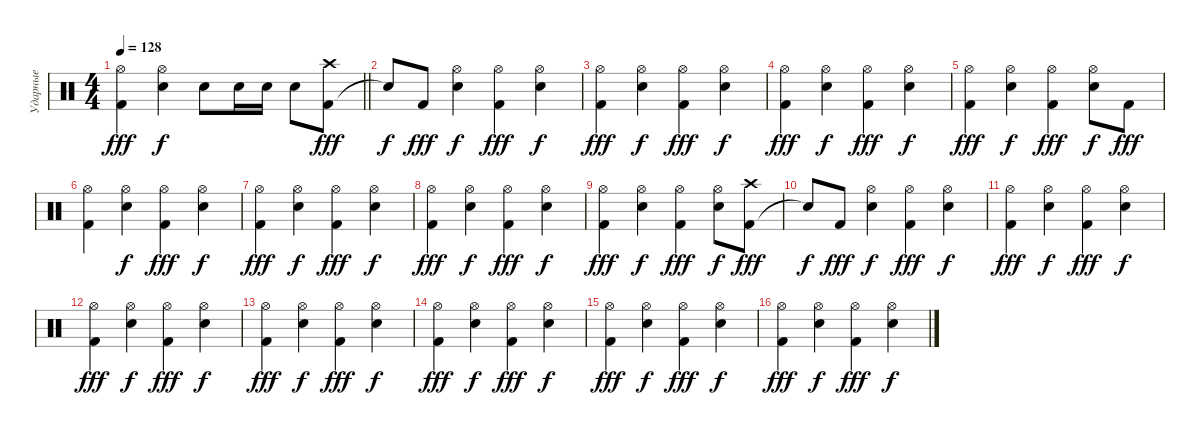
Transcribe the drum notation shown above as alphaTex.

\track ("Ударные" "Ударные") {instrument percussion}
\staff {score}
\articulation defaults
\ts (4 4)
\tempo 128
\clef neutral
\barLineRight lightlight
\ks c
("Kick (hit) 2" "Hi-Hat (open)").4{dy fff} ("Snare (hit) 2" "Hi-Hat (open)").4{dy f} "Snare (hit) 2".8 "Snare (hit) 2".16 "Snare (hit) 2".16 "Snare (hit) 2".8 ("Kick (hit) 2" "Crash high (hit)").8{dy fff} |
"Snare (hit)"{t}.8{dy f} "Kick (hit) 2".8{dy fff} ("Snare (hit) 2" "Hi-Hat (open)").4{dy f} ("Kick (hit) 2" "Hi-Hat (open)").4{dy fff} ("Snare (hit) 2" "Hi-Hat (open)").4{dy f} |
("Kick (hit) 2" "Hi-Hat (open)").4{dy fff} ("Snare (hit) 2" "Hi-Hat (open)").4{dy f} ("Kick (hit) 2" "Hi-Hat (open)").4{dy fff} ("Snare (hit) 2" "Hi-Hat (open)").4{dy f} |
("Kick (hit) 2" "Hi-Hat (open)").4{dy fff} ("Snare (hit) 2" "Hi-Hat (open)").4{dy f} ("Kick (hit) 2" "Hi-Hat (open)").4{dy fff} ("Snare (hit) 2" "Hi-Hat (open)").4{dy f} |
("Kick (hit) 2" "Hi-Hat (open)").4{dy fff} ("Snare (hit) 2" "Hi-Hat (open)").4{dy f} ("Kick (hit) 2" "Hi-Hat (open)").4{dy fff} ("Snare (hit) 2" "Hi-Hat (open)").8{dy f} "Kick (hit) 2".8{dy fff} |
("Kick (hit) 2" "Hi-Hat (open)").4 ("Snare (hit) 2" "Hi-Hat (open)").4{dy f} ("Kick (hit) 2" "Hi-Hat (open)").4{dy fff} ("Snare (hit) 2" "Hi-Hat (open)").4{dy f} |
("Kick (hit) 2" "Hi-Hat (open)").4{dy fff} ("Snare (hit) 2" "Hi-Hat (open)").4{dy f} ("Kick (hit) 2" "Hi-Hat (open)").4{dy fff} ("Snare (hit) 2" "Hi-Hat (open)").4{dy f} |
("Kick (hit) 2" "Hi-Hat (open)").4{dy fff} ("Snare (hit) 2" "Hi-Hat (open)").4{dy f} ("Kick (hit) 2" "Hi-Hat (open)").4{dy fff} ("Snare (hit) 2" "Hi-Hat (open)").4{dy f} |
("Kick (hit) 2" "Hi-Hat (open)").4{dy fff} ("Snare (hit) 2" "Hi-Hat (open)").4{dy f} ("Kick (hit) 2" "Hi-Hat (open)").4{dy fff} ("Snare (hit) 2" "Hi-Hat (open)").8{dy f} ("Kick (hit) 2" "Crash high (hit)").8{dy fff} |
"Snare (hit)"{t}.8{dy f} "Kick (hit) 2".8{dy fff} ("Snare (hit) 2" "Hi-Hat (open)").4{dy f} ("Kick (hit) 2" "Hi-Hat (open)").4{dy fff} ("Snare (hit) 2" "Hi-Hat (open)").4{dy f} |
("Kick (hit) 2" "Hi-Hat (open)").4{dy fff} ("Snare (hit) 2" "Hi-Hat (open)").4{dy f} ("Kick (hit) 2" "Hi-Hat (open)").4{dy fff} ("Snare (hit) 2" "Hi-Hat (open)").4{dy f} |
("Kick (hit) 2" "Hi-Hat (open)").4{dy fff} ("Snare (hit) 2" "Hi-Hat (open)").4{dy f} ("Kick (hit) 2" "Hi-Hat (open)").4{dy fff} ("Snare (hit) 2" "Hi-Hat (open)").4{dy f} |
("Kick (hit) 2" "Hi-Hat (open)").4{dy fff} ("Snare (hit) 2" "Hi-Hat (open)").4{dy f} ("Kick (hit) 2" "Hi-Hat (open)").4{dy fff} ("Snare (hit) 2" "Hi-Hat (open)").4{dy f} |
("Kick (hit) 2" "Hi-Hat (open)").4{dy fff} ("Snare (hit) 2" "Hi-Hat (open)").4{dy f} ("Kick (hit) 2" "Hi-Hat (open)").4{dy fff} ("Snare (hit) 2" "Hi-Hat (open)").4{dy f} |
("Kick (hit) 2" "Hi-Hat (open)").4{dy fff} ("Snare (hit) 2" "Hi-Hat (open)").4{dy f} ("Kick (hit) 2" "Hi-Hat (open)").4{dy fff} ("Snare (hit) 2" "Hi-Hat (open)").4{dy f} |
("Kick (hit) 2" "Hi-Hat (open)").4{dy fff} ("Snare (hit) 2" "Hi-Hat (open)").4{dy f} ("Kick (hit) 2" "Hi-Hat (open)").4{dy fff} ("Snare (hit) 2" "Hi-Hat (open)").4{dy f}
